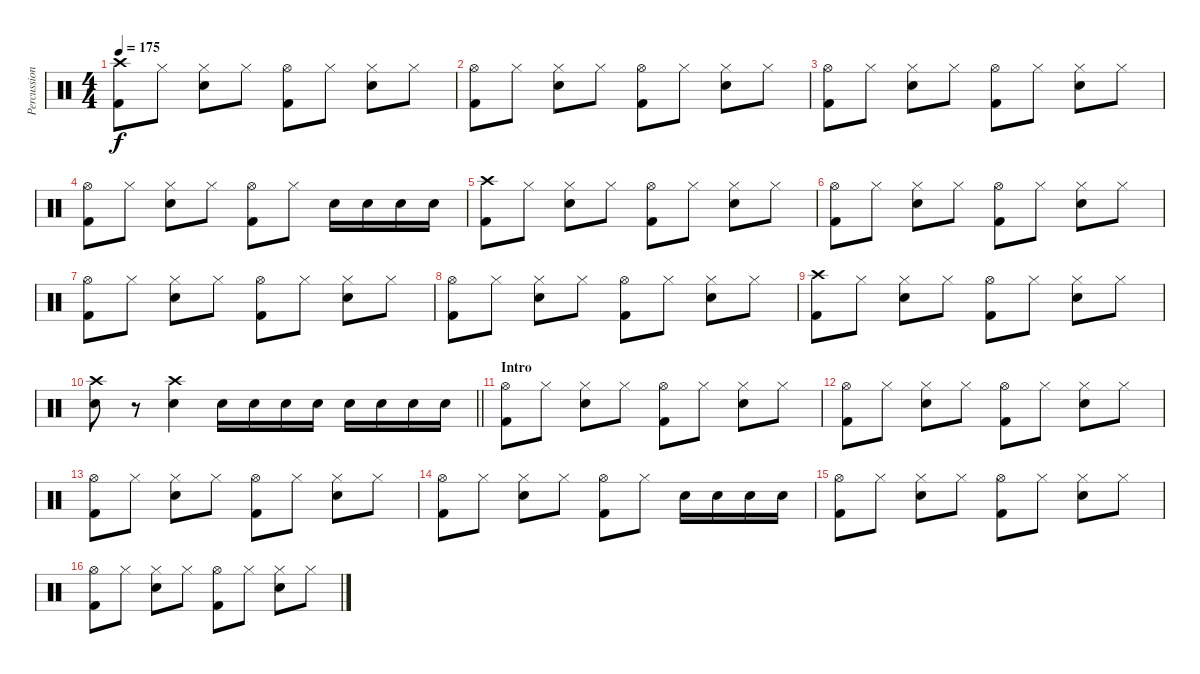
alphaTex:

\track ("Percussion" "Percussion") {instrument percussion}
\staff {score}
\articulation defaults
\ts (4 4)
\tempo 175
\clef neutral
\ks c
("Crash high (hit)" "Kick (hit) 2").8{dy f} "Hi-Hat (closed)".8 ("Hi-Hat (closed)" "Snare (hit) 2").8 "Hi-Hat (closed)".8 ("Hi-Hat (open)" "Kick (hit) 2").8 "Hi-Hat (closed)".8 ("Hi-Hat (closed)" "Snare (hit) 2").8 "Hi-Hat (closed)".8 |
("Hi-Hat (open)" "Kick (hit) 2").8 "Hi-Hat (closed)".8 ("Hi-Hat (closed)" "Snare (hit) 2").8 "Hi-Hat (closed)".8 ("Hi-Hat (open)" "Kick (hit) 2").8 "Hi-Hat (closed)".8 ("Hi-Hat (closed)" "Snare (hit) 2").8 "Hi-Hat (closed)".8 |
("Hi-Hat (open)" "Kick (hit) 2").8 "Hi-Hat (closed)".8 ("Hi-Hat (closed)" "Snare (hit) 2").8 "Hi-Hat (closed)".8 ("Hi-Hat (open)" "Kick (hit) 2").8 "Hi-Hat (closed)".8 ("Hi-Hat (closed)" "Snare (hit) 2").8 "Hi-Hat (closed)".8 |
("Hi-Hat (open)" "Kick (hit) 2").8 "Hi-Hat (closed)".8 ("Hi-Hat (closed)" "Snare (hit) 2").8 "Hi-Hat (closed)".8 ("Hi-Hat (open)" "Kick (hit) 2").8 "Hi-Hat (closed)".8 "Snare (hit) 2".16 "Snare (hit) 2".16 "Snare (hit) 2".16 "Snare (hit) 2".16 |
("Crash high (hit)" "Kick (hit) 2").8 "Hi-Hat (closed)".8 ("Hi-Hat (closed)" "Snare (hit) 2").8 "Hi-Hat (closed)".8 ("Hi-Hat (open)" "Kick (hit) 2").8 "Hi-Hat (closed)".8 ("Hi-Hat (closed)" "Snare (hit) 2").8 "Hi-Hat (closed)".8 |
("Hi-Hat (open)" "Kick (hit) 2").8 "Hi-Hat (closed)".8 ("Hi-Hat (closed)" "Snare (hit) 2").8 "Hi-Hat (closed)".8 ("Hi-Hat (open)" "Kick (hit) 2").8 "Hi-Hat (closed)".8 ("Hi-Hat (closed)" "Snare (hit) 2").8 "Hi-Hat (closed)".8 |
("Hi-Hat (open)" "Kick (hit) 2").8 "Hi-Hat (closed)".8 ("Hi-Hat (closed)" "Snare (hit) 2").8 "Hi-Hat (closed)".8 ("Hi-Hat (open)" "Kick (hit) 2").8 "Hi-Hat (closed)".8 ("Hi-Hat (closed)" "Snare (hit) 2").8 "Hi-Hat (closed)".8 |
("Hi-Hat (open)" "Kick (hit) 2").8 "Hi-Hat (closed)".8 ("Hi-Hat (closed)" "Snare (hit) 2").8 "Hi-Hat (closed)".8 ("Hi-Hat (open)" "Kick (hit) 2").8 "Hi-Hat (closed)".8 ("Hi-Hat (closed)" "Snare (hit) 2").8 "Hi-Hat (closed)".8 |
("Crash high (hit)" "Kick (hit) 2").8 "Hi-Hat (closed)".8 ("Hi-Hat (closed)" "Snare (hit) 2").8 "Hi-Hat (closed)".8 ("Hi-Hat (open)" "Kick (hit) 2").8 "Hi-Hat (closed)".8 ("Hi-Hat (closed)" "Snare (hit) 2").8 "Hi-Hat (closed)".8 |
\barLineRight lightlight
("Crash high (hit)" "Snare (hit) 2").8 r.8 ("Crash high (hit)" "Snare (hit) 2").4 "Snare (hit) 2".16 "Snare (hit) 2".16 "Snare (hit) 2".16 "Snare (hit) 2".16 "Snare (hit) 2".16 "Snare (hit) 2".16 "Snare (hit) 2".16 "Snare (hit) 2".16 |
\section ("" "Intro")
("Hi-Hat (open)" "Kick (hit) 2").8 "Hi-Hat (closed)".8 ("Hi-Hat (closed)" "Snare (hit) 2").8 "Hi-Hat (closed)".8 ("Hi-Hat (open)" "Kick (hit) 2").8 "Hi-Hat (closed)".8 ("Hi-Hat (closed)" "Snare (hit) 2").8 "Hi-Hat (closed)".8 |
("Hi-Hat (open)" "Kick (hit) 2").8 "Hi-Hat (closed)".8 ("Hi-Hat (closed)" "Snare (hit) 2").8 "Hi-Hat (closed)".8 ("Hi-Hat (open)" "Kick (hit) 2").8 "Hi-Hat (closed)".8 ("Hi-Hat (closed)" "Snare (hit) 2").8 "Hi-Hat (closed)".8 |
("Hi-Hat (open)" "Kick (hit) 2").8 "Hi-Hat (closed)".8 ("Hi-Hat (closed)" "Snare (hit) 2").8 "Hi-Hat (closed)".8 ("Hi-Hat (open)" "Kick (hit) 2").8 "Hi-Hat (closed)".8 ("Hi-Hat (closed)" "Snare (hit) 2").8 "Hi-Hat (closed)".8 |
("Hi-Hat (open)" "Kick (hit) 2").8 "Hi-Hat (closed)".8 ("Hi-Hat (closed)" "Snare (hit) 2").8 "Hi-Hat (closed)".8 ("Hi-Hat (open)" "Kick (hit) 2").8 "Hi-Hat (closed)".8 "Snare (hit) 2".16 "Snare (hit) 2".16 "Snare (hit) 2".16 "Snare (hit) 2".16 |
("Hi-Hat (open)" "Kick (hit) 2").8 "Hi-Hat (closed)".8 ("Hi-Hat (closed)" "Snare (hit) 2").8 "Hi-Hat (closed)".8 ("Hi-Hat (open)" "Kick (hit) 2").8 "Hi-Hat (closed)".8 ("Hi-Hat (closed)" "Snare (hit) 2").8 "Hi-Hat (closed)".8 |
("Hi-Hat (open)" "Kick (hit) 2").8 "Hi-Hat (closed)".8 ("Hi-Hat (closed)" "Snare (hit) 2").8 "Hi-Hat (closed)".8 ("Hi-Hat (open)" "Kick (hit) 2").8 "Hi-Hat (closed)".8 ("Hi-Hat (closed)" "Snare (hit) 2").8 "Hi-Hat (closed)".8
